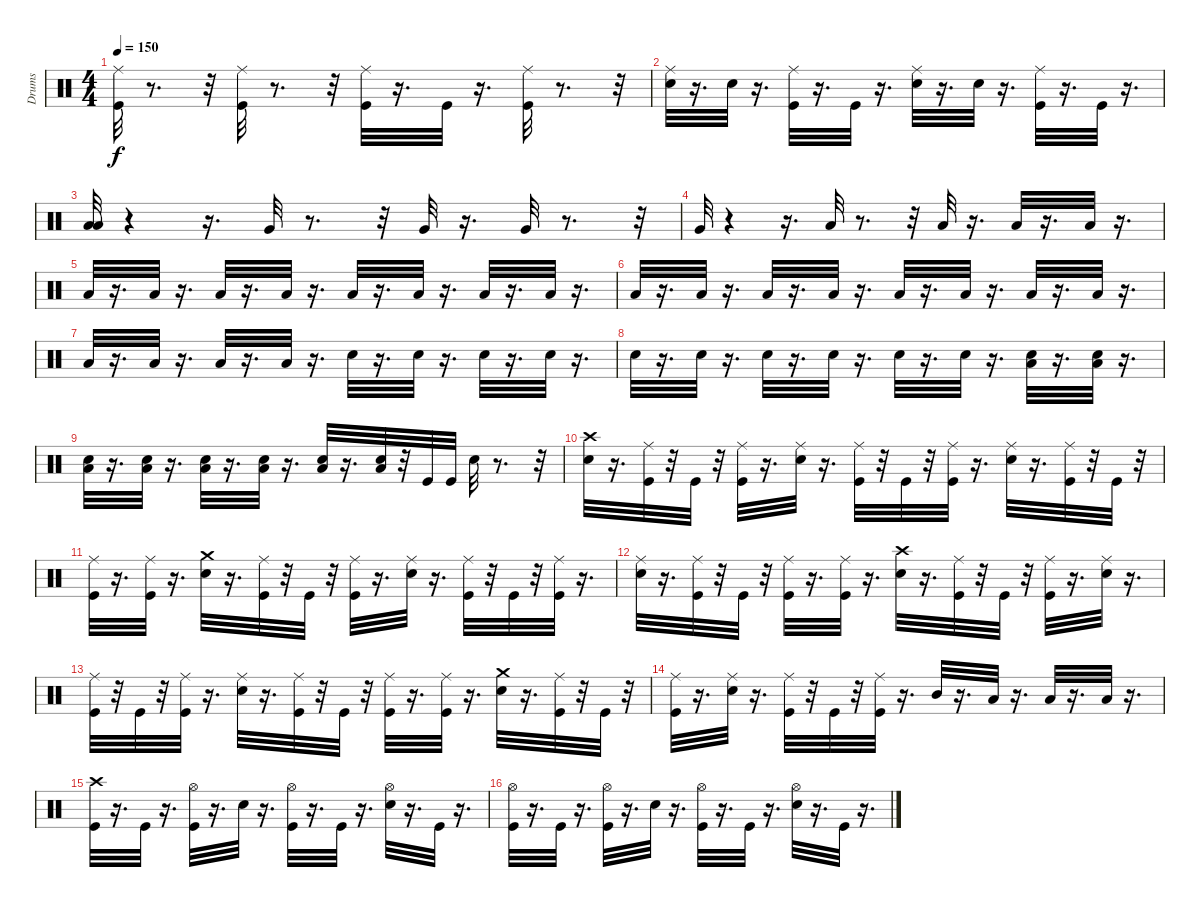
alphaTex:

\track ("Drums" "Drums") {instrument percussion}
\staff {score}
\articulation defaults
\ts (4 4)
\tempo 150
\clef neutral
\ks c
("Ride (middle)" "Kick (hit)").32{dy f} r.8{d} r.32 ("Ride (middle)" "Kick (hit)").32 r.8{d} r.32 ("Ride (middle)" "Kick (hit)").32 r.16{d} "Kick (hit)".32 r.16{d} ("Ride (middle)" "Kick (hit)").32 r.8{d} r.32 |
("Ride (middle)" "Electric Snare (hit)").32 r.16{d} "Electric Snare (hit)".32 r.16{d} ("Ride (middle)" "Kick (hit)").32 r.16{d} "Kick (hit)".32 r.16{d} ("Ride (middle)" "Electric Snare (hit)").32 r.16{d} "Electric Snare (hit)".32 r.16{d} ("Ride (middle)" "Kick (hit)").32 r.16{d} "Kick (hit)".32 r.16{d} |
("Low Tom (hit)" "Low Tom (hit)").32 r.4 r.16{d} "Very Low Tom (hit)".32 r.8{d} r.32 "Very Low Tom (hit)".32 r.16{d} "Very Low Tom (hit)".32 r.8{d} r.32 |
"Very Low Tom (hit)".32 r.4 r.16{d} "Low Floor Tom (hit)".32 r.8{d} r.32 "Low Floor Tom (hit)".32 r.16{d} "Low Floor Tom (hit)".32 r.16{d} "Low Floor Tom (hit)".32 r.16{d} |
"Low Tom (hit)".32 r.16{d} "Low Floor Tom (hit)".32 r.16{d} "Low Floor Tom (hit)".32 r.16{d} "Low Tom (hit)".32 r.16{d} "Low Floor Tom (hit)".32 r.16{d} "Low Floor Tom (hit)".32 r.16{d} "Low Tom (hit)".32 r.16{d} "Low Tom (hit)".32 r.16{d} |
"Low Floor Tom (hit)".32 r.16{d} "Low Floor Tom (hit)".32 r.16{d} "Low Tom (hit)".32 r.16{d} "Low Floor Tom (hit)".32 r.16{d} "Low Floor Tom (hit)".32 r.16{d} "Low Tom (hit)".32 r.16{d} "Low Floor Tom (hit)".32 r.16{d} "Low Floor Tom (hit)".32 r.16{d} |
"Low Tom (hit)".32 r.16{d} "Low Tom (hit)".32 r.16{d} "Low Floor Tom (hit)".32 r.16{d} "Low Floor Tom (hit)".32 r.16{d} "Electric Snare (hit)".32 r.16{d} "Electric Snare (hit)".32 r.16{d} "Electric Snare (hit)".32 r.16{d} "Electric Snare (hit)".32 r.16{d} |
"Electric Snare (hit)".32 r.16{d} "Electric Snare (hit)".32 r.16{d} "Electric Snare (hit)".32 r.16{d} "Electric Snare (hit)".32 r.16{d} "Electric Snare (hit)".32 r.16{d} "Electric Snare (hit)".32 r.16{d} ("Electric Snare (hit)" "Low Floor Tom (hit)").32 r.16{d} ("Low Floor Tom (hit)" "Electric Snare (hit)").32 r.16{d} |
("Low Floor Tom (hit)" "Electric Snare (hit)").32 r.16{d} ("Low Floor Tom (hit)" "Electric Snare (hit)").32 r.16{d} ("Low Floor Tom (hit)" "Electric Snare (hit)").32 r.16{d} ("Low Floor Tom (hit)" "Electric Snare (hit)").32 r.16{d} ("Low Floor Tom (hit)" "Electric Snare (hit)").32 r.16{d} ("Electric Snare (hit)" "Low Floor Tom (hit)").32 r.32 "Kick (hit)".32 "Kick (hit)".32 "Electric Snare (hit)".32 r.8{d} r.32 |
("Crash high (hit)" "Electric Snare (hit)").32 r.16{d} ("Ride (middle)" "Kick (hit)").32 r.32 "Kick (hit)".32 r.32 ("Kick (hit)" "Ride (middle)").32 r.16{d} ("Ride (middle)" "Electric Snare (hit)").32 r.16{d} ("Ride (middle)" "Kick (hit)").32 r.32 "Kick (hit)".32 r.32 ("Ride (middle)" "Kick (hit)").32 r.16{d} ("Ride (middle)" "Electric Snare (hit)").32 r.16{d} ("Ride (middle)" "Kick (hit)").32 r.32 "Kick (hit)".32 r.32 |
("Ride (middle)" "Kick (hit)").32 r.16{d} ("Ride (middle)" "Kick (hit)").32 r.16{d} ("Crash medium (hit)" "Electric Snare (hit)").32 r.16{d} ("Kick (hit)" "Ride (middle)").32 r.32 "Kick (hit)".32 r.32 ("Kick (hit)" "Ride (middle)").32 r.16{d} ("Electric Snare (hit)" "Ride (middle)").32 r.16{d} ("Kick (hit)" "Ride (middle)").32 r.32 "Kick (hit)".32 r.32 ("Kick (hit)" "Ride (middle)").32 r.16{d} |
("Electric Snare (hit)" "Ride (middle)").32 r.16{d} ("Kick (hit)" "Ride (middle)").32 r.32 "Kick (hit)".32 r.32 ("Kick (hit)" "Ride (middle)").32 r.16{d} ("Ride (middle)" "Kick (hit)").32 r.16{d} ("Electric Snare (hit)" "Crash high (hit)").32 r.16{d} ("Ride (middle)" "Kick (hit)").32 r.32 "Kick (hit)".32 r.32 ("Ride (middle)" "Kick (hit)").32 r.16{d} ("Ride (middle)" "Electric Snare (hit)").32 r.16{d} |
("Ride (middle)" "Kick (hit)").32 r.32 "Kick (hit)".32 r.32 ("Ride (middle)" "Kick (hit)").32 r.16{d} ("Ride (middle)" "Electric Snare (hit)").32 r.16{d} ("Ride (middle)" "Kick (hit)").32 r.32 "Kick (hit)".32 r.32 ("Ride (middle)" "Kick (hit)").32 r.16{d} ("Ride (middle)" "Kick (hit)").32 r.16{d} ("Electric Snare (hit)" "Crash medium (hit)").32 r.16{d} ("Kick (hit)" "Ride (middle)").32 r.32 "Kick (hit)".32 r.32 |
("Ride (middle)" "Kick (hit)").32 r.16{d} ("Ride (middle)" "Electric Snare (hit)").32 r.16{d} ("Ride (middle)" "Kick (hit)").32 r.32 "Kick (hit)".32 r.32 ("Ride (middle)" "Kick (hit)").32 r.16{d} "Mid Tom (hit)".32 r.16{d} "Low Tom (hit)".32 r.16{d} "Low Tom (hit)".32 r.16{d} "Low Floor Tom (hit)".32 r.16{d} |
("Crash high (hit)" "Kick (hit)").32 r.16{d} "Kick (hit)".32 r.16{d} ("Hi-Hat (open)" "Kick (hit)").32 r.16{d} "Electric Snare (hit)".32 r.16{d} ("Hi-Hat (open)" "Kick (hit)").32 r.16{d} "Kick (hit)".32 r.16{d} ("Hi-Hat (open)" "Electric Snare (hit)").32 r.16{d} "Kick (hit)".32 r.16{d} |
("Hi-Hat (open)" "Kick (hit)").32 r.16{d} "Kick (hit)".32 r.16{d} ("Hi-Hat (open)" "Kick (hit)").32 r.16{d} "Electric Snare (hit)".32 r.16{d} ("Hi-Hat (open)" "Kick (hit)").32 r.16{d} "Kick (hit)".32 r.16{d} ("Hi-Hat (open)" "Electric Snare (hit)").32 r.16{d} "Kick (hit)".32 r.16{d}
